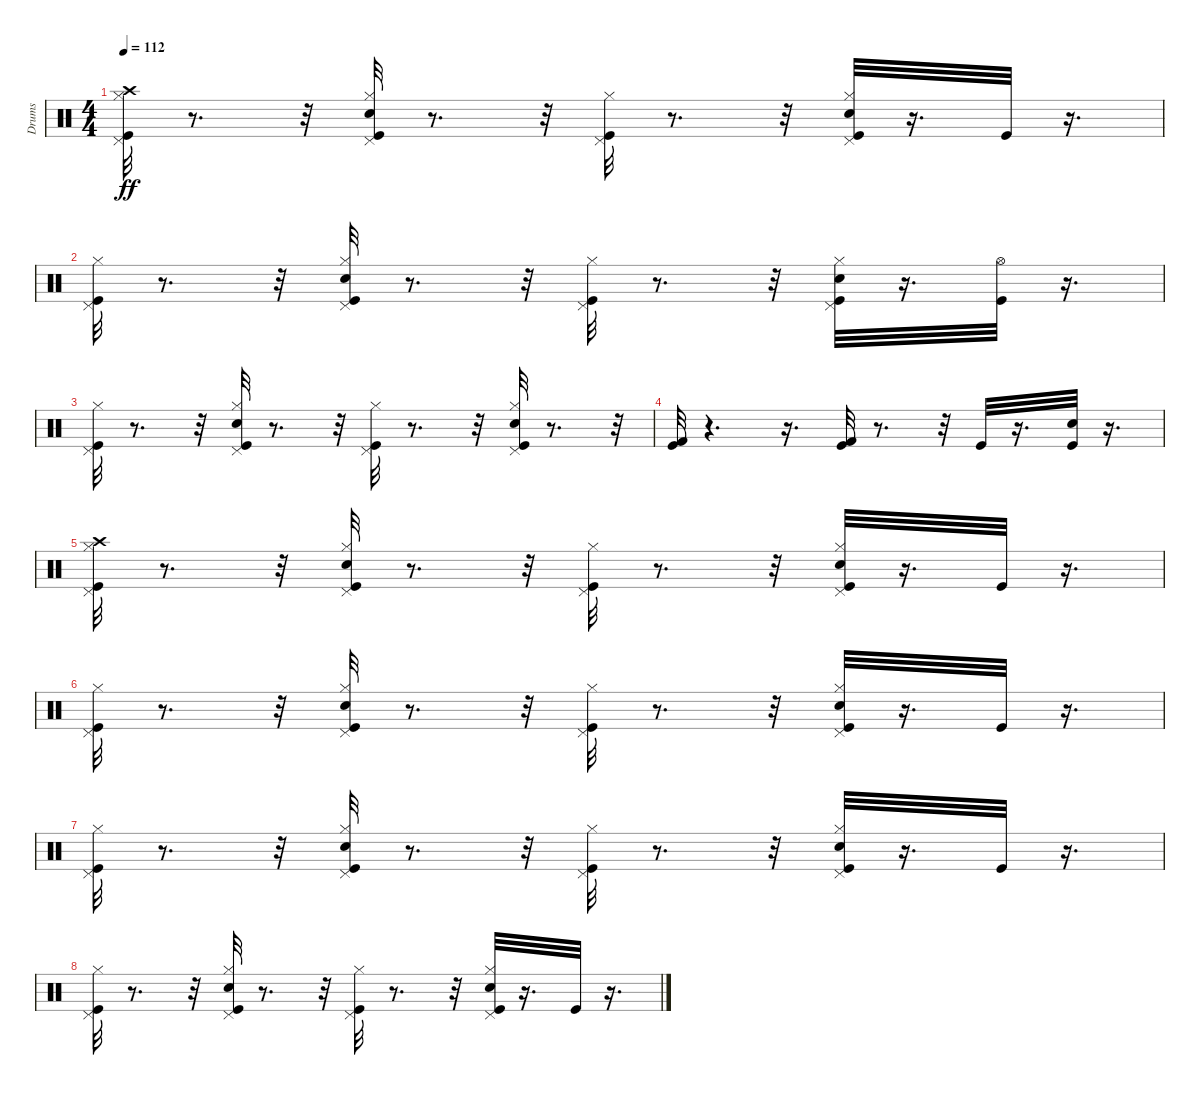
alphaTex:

\track ("Drums" "Drums") {instrument percussion}
\staff {score}
\articulation defaults
\ts (4 4)
\tempo 112
\clef neutral
\ks c
("Crash high (hit)" "Kick (hit)" "Pedal Hi-Hat (hit)" "Hi-Hat (closed)").32{dy ff} r.8{d} r.32 ("Hi-Hat (closed)" "Snare (hit) 2" "Kick (hit)" "Pedal Hi-Hat (hit)").32 r.8{d} r.32 ("Kick (hit)" "Hi-Hat (closed)" "Pedal Hi-Hat (hit)").32 r.8{d} r.32 ("Snare (hit) 2" "Kick (hit)" "Hi-Hat (closed)" "Pedal Hi-Hat (hit)").32 r.16{d} "Kick (hit)".32 r.16{d} |
("Pedal Hi-Hat (hit)" "Hi-Hat (closed)" "Kick (hit)").32 r.8{d} r.32 ("Hi-Hat (closed)" "Kick (hit)" "Pedal Hi-Hat (hit)" "Snare (hit) 2").32 r.8{d} r.32 ("Hi-Hat (closed)" "Pedal Hi-Hat (hit)" "Kick (hit)").32 r.8{d} r.32 ("Kick (hit)" "Pedal Hi-Hat (hit)" "Hi-Hat (closed)" "Snare (hit) 2").32 r.16{d} ("Hi-Hat (open)" "Kick (hit)").32 r.16{d} |
("Kick (hit)" "Pedal Hi-Hat (hit)" "Hi-Hat (closed)").32 r.8{d} r.32 ("Hi-Hat (closed)" "Kick (hit)" "Snare (hit) 2" "Pedal Hi-Hat (hit)").32 r.8{d} r.32 ("Hi-Hat (closed)" "Pedal Hi-Hat (hit)" "Kick (hit)").32 r.8{d} r.32 ("Pedal Hi-Hat (hit)" "Kick (hit)" "Snare (hit) 2" "Hi-Hat (closed)").32 r.8{d} r.32 |
("Kick (hit) 2" "Kick (hit)").32 r.4{d} r.16{d} ("Kick (hit) 2" "Kick (hit)").32 r.8{d} r.32 "Kick (hit)".32 r.16{d} ("Snare (hit) 2" "Kick (hit)").32 r.16{d} |
("Hi-Hat (closed)" "Pedal Hi-Hat (hit)" "Kick (hit)" "Crash high (hit)").32 r.8{d} r.32 ("Snare (hit) 2" "Hi-Hat (closed)" "Kick (hit)" "Pedal Hi-Hat (hit)").32 r.8{d} r.32 ("Kick (hit)" "Hi-Hat (closed)" "Pedal Hi-Hat (hit)").32 r.8{d} r.32 ("Pedal Hi-Hat (hit)" "Kick (hit)" "Snare (hit) 2" "Hi-Hat (closed)").32 r.16{d} "Kick (hit)".32 r.16{d} |
("Hi-Hat (closed)" "Kick (hit)" "Pedal Hi-Hat (hit)").32 r.8{d} r.32 ("Kick (hit)" "Pedal Hi-Hat (hit)" "Snare (hit) 2" "Hi-Hat (closed)").32 r.8{d} r.32 ("Kick (hit)" "Hi-Hat (closed)" "Pedal Hi-Hat (hit)").32 r.8{d} r.32 ("Hi-Hat (closed)" "Pedal Hi-Hat (hit)" "Snare (hit) 2" "Kick (hit)").32 r.16{d} "Kick (hit)".32 r.16{d} |
("Pedal Hi-Hat (hit)" "Kick (hit)" "Hi-Hat (closed)").32 r.8{d} r.32 ("Snare (hit) 2" "Hi-Hat (closed)" "Pedal Hi-Hat (hit)" "Kick (hit)").32 r.8{d} r.32 ("Pedal Hi-Hat (hit)" "Kick (hit)" "Hi-Hat (closed)").32 r.8{d} r.32 ("Kick (hit)" "Snare (hit) 2" "Hi-Hat (closed)" "Pedal Hi-Hat (hit)").32 r.16{d} "Kick (hit)".32 r.16{d} |
("Hi-Hat (closed)" "Kick (hit)" "Pedal Hi-Hat (hit)").32 r.8{d} r.32 ("Snare (hit) 2" "Kick (hit)" "Pedal Hi-Hat (hit)" "Hi-Hat (closed)").32 r.8{d} r.32 ("Pedal Hi-Hat (hit)" "Hi-Hat (closed)" "Kick (hit)").32 r.8{d} r.32 ("Hi-Hat (closed)" "Pedal Hi-Hat (hit)" "Kick (hit)" "Snare (hit) 2").32 r.16{d} "Kick (hit)".32 r.16{d}
